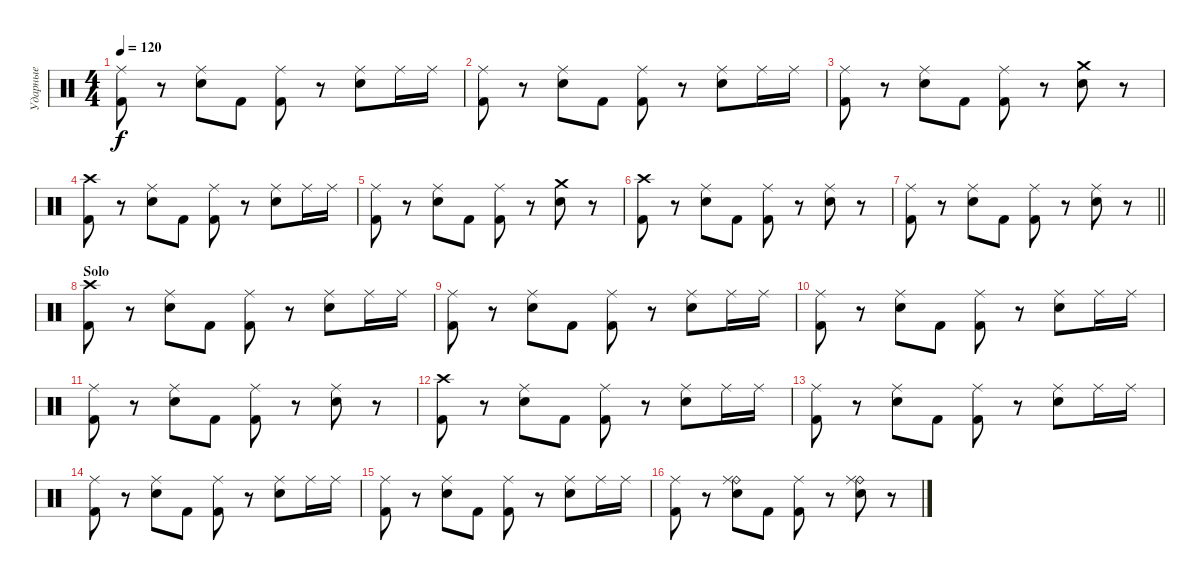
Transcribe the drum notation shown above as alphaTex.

\track ("Ударные" "Ударные") {instrument percussion}
\staff {score}
\articulation defaults
\ts (4 4)
\tempo 120
\clef neutral
\ks c
("Ride (middle)" "Kick (hit) 2").8{dy f} r.8 ("Ride (middle)" "Electric Snare (hit)").8 "Kick (hit) 2".8 ("Ride (middle)" "Kick (hit) 2").8 r.8 ("Ride (middle)" "Electric Snare (hit)").8 "Ride (middle)".16 "Ride (middle)".16 |
("Ride (middle)" "Kick (hit) 2").8 r.8 ("Ride (middle)" "Electric Snare (hit)").8 "Kick (hit) 2".8 ("Ride (middle)" "Kick (hit) 2").8 r.8 ("Ride (middle)" "Electric Snare (hit)").8 "Ride (middle)".16 "Ride (middle)".16 |
("Ride (middle)" "Kick (hit) 2").8 r.8 ("Ride (middle)" "Electric Snare (hit)").8 "Kick (hit) 2".8 ("Ride (middle)" "Kick (hit) 2").8 r.8 ("Crash medium (hit)" "Electric Snare (hit)").8 r.8 |
("Crash high (hit)" "Kick (hit) 2").8 r.8 ("Ride (middle)" "Electric Snare (hit)").8 "Kick (hit) 2".8 ("Ride (middle)" "Kick (hit) 2").8 r.8 ("Ride (middle)" "Electric Snare (hit)").8 "Ride (middle)".16 "Ride (middle)".16 |
("Ride (middle)" "Kick (hit) 2").8 r.8 ("Ride (middle)" "Electric Snare (hit)").8 "Kick (hit) 2".8 ("Ride (middle)" "Kick (hit) 2").8 r.8 ("Crash medium (hit)" "Electric Snare (hit)").8 r.8 |
("Crash high (hit)" "Kick (hit) 2").8 r.8 ("Ride (middle)" "Electric Snare (hit)").8 "Kick (hit) 2".8 ("Ride (middle)" "Kick (hit) 2").8 r.8 ("Ride (middle)" "Electric Snare (hit)").8 r.8 |
\barLineRight lightlight
("Ride (middle)" "Kick (hit) 2").8 r.8 ("Ride (middle)" "Electric Snare (hit)").8 "Kick (hit) 2".8 ("Ride (middle)" "Kick (hit) 2").8 r.8 ("Ride (middle)" "Electric Snare (hit)").8 r.8 |
\section ("" "Solo")
("Crash high (hit)" "Kick (hit) 2").8 r.8 ("Ride (middle)" "Electric Snare (hit)").8 "Kick (hit) 2".8 ("Ride (middle)" "Kick (hit) 2").8 r.8 ("Ride (middle)" "Electric Snare (hit)").8 "Ride (middle)".16 "Ride (middle)".16 |
("Ride (middle)" "Kick (hit) 2").8 r.8 ("Ride (middle)" "Electric Snare (hit)").8 "Kick (hit) 2".8 ("Ride (middle)" "Kick (hit) 2").8 r.8 ("Ride (middle)" "Electric Snare (hit)").8 "Ride (middle)".16 "Ride (middle)".16 |
("Ride (middle)" "Kick (hit) 2").8 r.8 ("Ride (middle)" "Electric Snare (hit)").8 "Kick (hit) 2".8 ("Ride (middle)" "Kick (hit) 2").8 r.8 ("Ride (middle)" "Electric Snare (hit)").8 "Ride (middle)".16 "Ride (middle)".16 |
("Ride (middle)" "Kick (hit) 2").8 r.8 ("Ride (middle)" "Electric Snare (hit)").8 "Kick (hit) 2".8 ("Ride (middle)" "Kick (hit) 2").8 r.8 ("Ride (middle)" "Electric Snare (hit)").8 r.8 |
("Crash high (hit)" "Kick (hit) 2").8 r.8 ("Ride (middle)" "Electric Snare (hit)").8 "Kick (hit) 2".8 ("Ride (middle)" "Kick (hit) 2").8 r.8 ("Ride (middle)" "Electric Snare (hit)").8 "Ride (middle)".16 "Ride (middle)".16 |
("Ride (middle)" "Kick (hit) 2").8 r.8 ("Ride (middle)" "Electric Snare (hit)").8 "Kick (hit) 2".8 ("Ride (middle)" "Kick (hit) 2").8 r.8 ("Ride (middle)" "Electric Snare (hit)").8 "Ride (middle)".16 "Ride (middle)".16 |
("Ride (middle)" "Kick (hit) 2").8 r.8 ("Ride (middle)" "Electric Snare (hit)").8 "Kick (hit) 2".8 ("Ride (middle)" "Kick (hit) 2").8 r.8 ("Ride (middle)" "Electric Snare (hit)").8 "Ride (middle)".16 "Ride (middle)".16 |
("Ride (middle)" "Kick (hit) 2").8 r.8 ("Ride (middle)" "Electric Snare (hit)").8 "Kick (hit) 2".8 ("Ride (middle)" "Kick (hit) 2").8 r.8 ("Ride (middle)" "Electric Snare (hit)").8 "Ride (middle)".16 "Ride (middle)".16 |
("Ride (middle)" "Kick (hit) 2").8 r.8 ("Ride (bell)" "Ride (middle)" "Electric Snare (hit)").8 "Kick (hit) 2".8 ("Ride (middle)" "Kick (hit) 2").8 r.8 ("Ride (bell)" "Ride (middle)" "Electric Snare (hit)").8 r.8
